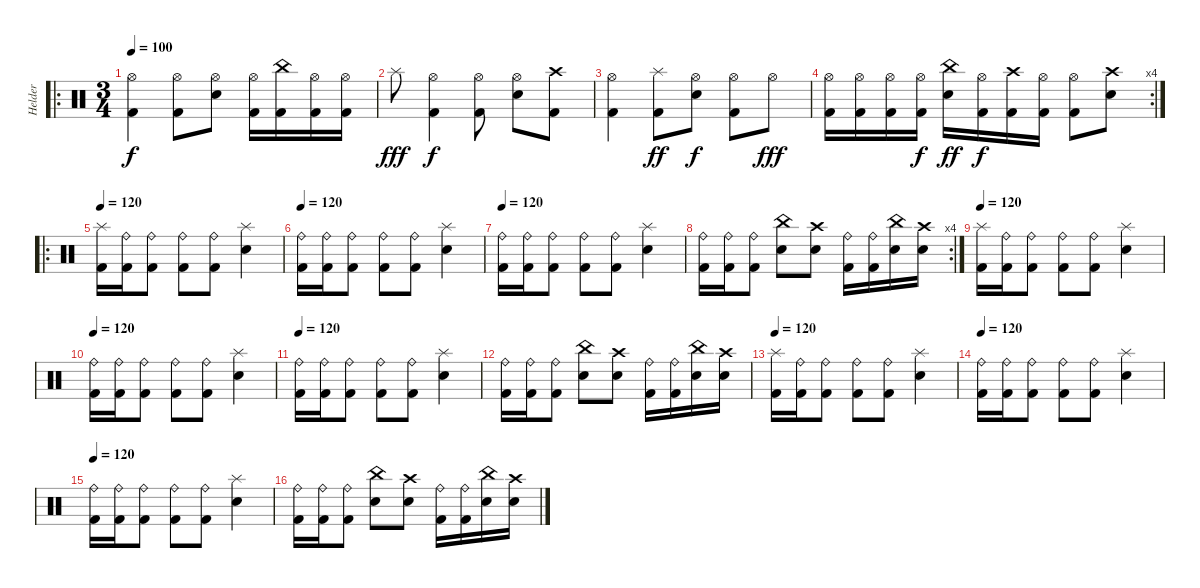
\track ("Helder" "Helder") {instrument percussion}
\staff {score}
\articulation defaults
\ro
\ts (3 4)
\tempo 100
\clef neutral
\ks c
("Hi-Hat (open)" "Kick (hit) 2").4{dy f} ("Hi-Hat (open)" "Kick (hit) 2").8 ("Hi-Hat (open)" "Snare (hit) 2").8 ("Hi-Hat (open)" "Kick (hit) 2").16 ("China (hit)" "Kick (hit) 2").16 ("Hi-Hat (open)" "Kick (hit) 2").16 ("Hi-Hat (open)" "Kick (hit) 2").16 |
"Splash (hit)".8{dy fff} ("Hi-Hat (open)" "Kick (hit) 2").4{dy f} ("Hi-Hat (open)" "Kick (hit) 2").8 ("Hi-Hat (open)" "Snare (hit) 2").8 ("Crash high (hit)" "Kick (hit) 2").8 |
("Hi-Hat (open)" "Kick (hit) 2").4 ("Splash (hit)" "Kick (hit) 2").8{dy ff} ("Hi-Hat (open)" "Snare (hit) 2").8{dy f} ("Hi-Hat (open)" "Kick (hit) 2").8 "Hi-Hat (open)".8{dy fff} |
\rc 4
("Hi-Hat (open)" "Kick (hit) 2").16 ("Hi-Hat (open)" "Kick (hit) 2").16 ("Hi-Hat (open)" "Kick (hit) 2").16 ("Hi-Hat (open)" "Kick (hit) 2").16{dy f} ("China (hit)" "Snare (hit) 2").16{dy ff} ("Hi-Hat (open)" "Kick (hit) 2").16{dy f} ("Crash high (hit)" "Kick (hit) 2").16 ("Hi-Hat (open)" "Kick (hit) 2").16 ("Hi-Hat (open)" "Kick (hit) 2").8 ("Crash high (hit)" "Snare (hit) 2").8 |
\ro
\tempo 120
("Kick (hit) 2" "Splash (hit)").16 ("Kick (hit) 2" "Ride (bell)").16 ("Kick (hit) 2" "Ride (bell)").8 ("Kick (hit) 2" "Ride (bell)").8 ("Kick (hit) 2" "Ride (bell)").8 ("Snare (hit) 2" "Splash (hit)").4 |
\tempo 120
("Kick (hit) 2" "Ride (bell)").16 ("Kick (hit) 2" "Ride (bell)").16 ("Kick (hit) 2" "Ride (bell)").8 ("Kick (hit) 2" "Ride (bell)").8 ("Kick (hit) 2" "Ride (bell)").8 ("Snare (hit) 2" "Splash (hit)").4 |
\tempo 120
("Kick (hit) 2" "Ride (bell)").16 ("Kick (hit) 2" "Ride (bell)").16 ("Kick (hit) 2" "Ride (bell)").8 ("Kick (hit) 2" "Ride (bell)").8 ("Kick (hit) 2" "Ride (bell)").8 ("Snare (hit) 2" "Splash (hit)").4 |
\rc 4
("Kick (hit) 2" "Ride (bell)").16 ("Kick (hit) 2" "Ride (bell)").16 ("Kick (hit) 2" "Ride (bell)").8 ("Snare (hit) 2" "China (hit)").8 ("Snare (hit) 2" "Crash high (hit)").8 ("Kick (hit) 2" "Ride (bell)").16 ("Kick (hit) 2" "Ride (bell)").16 ("Snare (hit) 2" "China (hit)").16 ("Snare (hit) 2" "Crash high (hit)").16 |
\tempo 120
("Kick (hit) 2" "Splash (hit)").16 ("Kick (hit) 2" "Ride (bell)").16 ("Kick (hit) 2" "Ride (bell)").8 ("Kick (hit) 2" "Ride (bell)").8 ("Kick (hit) 2" "Ride (bell)").8 ("Snare (hit) 2" "Splash (hit)").4 |
\tempo 120
("Kick (hit) 2" "Ride (bell)").16 ("Kick (hit) 2" "Ride (bell)").16 ("Kick (hit) 2" "Ride (bell)").8 ("Kick (hit) 2" "Ride (bell)").8 ("Kick (hit) 2" "Ride (bell)").8 ("Snare (hit) 2" "Splash (hit)").4 |
\tempo 120
("Kick (hit) 2" "Ride (bell)").16 ("Kick (hit) 2" "Ride (bell)").16 ("Kick (hit) 2" "Ride (bell)").8 ("Kick (hit) 2" "Ride (bell)").8 ("Kick (hit) 2" "Ride (bell)").8 ("Snare (hit) 2" "Splash (hit)").4 |
("Kick (hit) 2" "Ride (bell)").16 ("Kick (hit) 2" "Ride (bell)").16 ("Kick (hit) 2" "Ride (bell)").8 ("Snare (hit) 2" "China (hit)").8 ("Snare (hit) 2" "Crash high (hit)").8 ("Kick (hit) 2" "Ride (bell)").16 ("Kick (hit) 2" "Ride (bell)").16 ("Snare (hit) 2" "China (hit)").16 ("Snare (hit) 2" "Crash high (hit)").16 |
\tempo 120
("Kick (hit) 2" "Splash (hit)").16 ("Kick (hit) 2" "Ride (bell)").16 ("Kick (hit) 2" "Ride (bell)").8 ("Kick (hit) 2" "Ride (bell)").8 ("Kick (hit) 2" "Ride (bell)").8 ("Snare (hit) 2" "Splash (hit)").4 |
\tempo 120
("Kick (hit) 2" "Ride (bell)").16 ("Kick (hit) 2" "Ride (bell)").16 ("Kick (hit) 2" "Ride (bell)").8 ("Kick (hit) 2" "Ride (bell)").8 ("Kick (hit) 2" "Ride (bell)").8 ("Snare (hit) 2" "Splash (hit)").4 |
\tempo 120
("Kick (hit) 2" "Ride (bell)").16 ("Kick (hit) 2" "Ride (bell)").16 ("Kick (hit) 2" "Ride (bell)").8 ("Kick (hit) 2" "Ride (bell)").8 ("Kick (hit) 2" "Ride (bell)").8 ("Snare (hit) 2" "Splash (hit)").4 |
("Kick (hit) 2" "Ride (bell)").16 ("Kick (hit) 2" "Ride (bell)").16 ("Kick (hit) 2" "Ride (bell)").8 ("Snare (hit) 2" "China (hit)").8 ("Snare (hit) 2" "Crash high (hit)").8 ("Kick (hit) 2" "Ride (bell)").16 ("Kick (hit) 2" "Ride (bell)").16 ("Snare (hit) 2" "China (hit)").16 ("Snare (hit) 2" "Crash high (hit)").16
